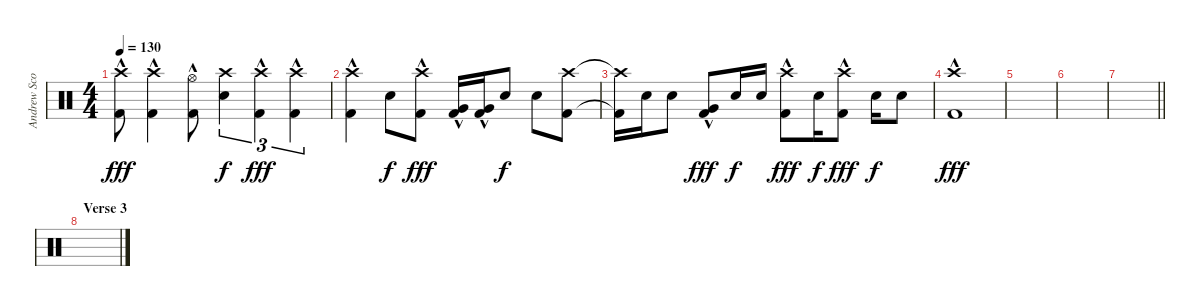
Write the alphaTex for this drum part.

\track ("Andrew Scott" "Andrew Sco") {instrument percussion}
\staff {score}
\articulation defaults
\ts (4 4)
\tempo 130
\clef neutral
\ks c
("Crash high (hit)" "Kick (hit) 2"{hac}).8{dy fff} ("Crash high (hit)" "Kick (hit) 2"{hac}).4 ("Hi-Hat (open)" "Kick (hit) 2"{hac}).8 ("Crash high (hit)" "Snare (hit) 2").4{tu (3 2) dy f} ("Crash high (hit)" "Kick (hit) 2"{hac}).4{tu (3 2) dy fff} ("Crash high (hit)" "Kick (hit) 2"{hac}).4{tu (3 2)} |
("Crash high (hit)" "Kick (hit) 2"{hac}).4 "Snare (hit) 2".8{dy f} ("Crash high (hit)" "Kick (hit) 2"{hac}).8{dy fff} ("Very Low Tom (hit)"{hac} "Kick (hit) 2"{hac}).16 ("Very Low Tom (hit)"{hac} "Kick (hit) 2"{hac}).16 "Snare (hit) 2".8{dy f} "Snare (hit) 2".8 ("Crash high (hit)" "Kick (hit) 2").8 |
("Crash high (hit)"{t} "Kick (hit) 2"{t}).16 "Snare (hit) 2".16 "Snare (hit) 2".8 ("Very Low Tom (hit)"{hac} "Kick (hit) 2"{hac}).8{dy fff} "Snare (hit) 2".16{dy f} "Snare (hit) 2".16 ("Crash high (hit)" "Kick (hit) 2"{hac}).8{dy fff} "Snare (hit) 2".16{dy f} ("Crash high (hit)" "Kick (hit) 2"{hac}).8{dy fff} "Snare (hit) 2".16{dy f} "Snare (hit) 2".8 |
("Crash high (hit)" "Kick (hit) 2"{hac}).1{dy fff} |
|
|
\barLineRight lightlight
|
\section ("" "Verse 3")
